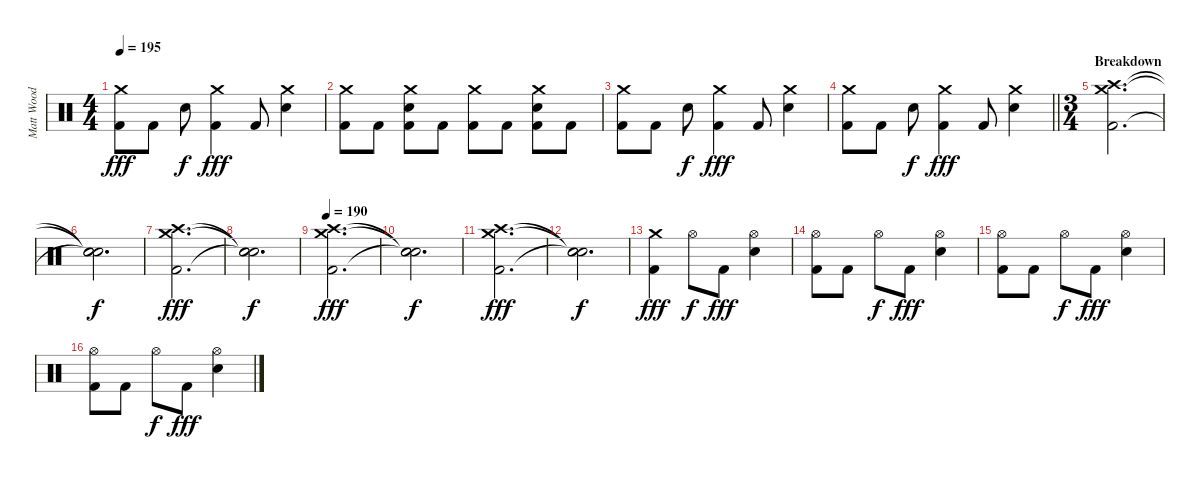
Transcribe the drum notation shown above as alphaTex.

\track ("Matt Wood" "Matt Wood") {instrument percussion}
\staff {score}
\articulation defaults
\ts (4 4)
\tempo 195
\clef neutral
\ks c
("Crash medium (hit)" "Kick (hit) 2").8{dy fff} "Kick (hit) 2".8 "Snare (hit) 2".8{dy f} ("Crash medium (hit)" "Kick (hit) 2").4{dy fff} "Kick (hit) 2".8 ("Crash medium (hit)" "Snare (hit) 2").4 |
("Crash medium (hit)" "Kick (hit) 2").8 "Kick (hit) 2".8 ("Crash medium (hit)" "Snare (hit) 2" "Kick (hit) 2").8 "Kick (hit) 2".8 ("Crash medium (hit)" "Kick (hit) 2").8 "Kick (hit) 2".8 ("Crash medium (hit)" "Snare (hit) 2" "Kick (hit) 2").8 "Kick (hit) 2".8 |
("Crash medium (hit)" "Kick (hit) 2").8 "Kick (hit) 2".8 "Snare (hit) 2".8{dy f} ("Crash medium (hit)" "Kick (hit) 2").4{dy fff} "Kick (hit) 2".8 ("Crash medium (hit)" "Snare (hit) 2").4 |
\barLineRight lightlight
("Crash medium (hit)" "Kick (hit) 2").8 "Kick (hit) 2".8 "Snare (hit) 2".8{dy f} ("Crash medium (hit)" "Kick (hit) 2").4{dy fff} "Kick (hit) 2".8 ("Crash medium (hit)" "Snare (hit) 2").4 |
\ts (3 4)
\section ("" "Breakdown")
("Crash medium (hit)" "Crash high (hit)" "Kick (hit) 2").2{d} |
("Snare (hit)"{t} "Snare (hit)"{t} "Snare (hit)"{t}).2{d dy f} |
("Crash medium (hit)" "Crash high (hit)" "Kick (hit) 2").2{d dy fff} |
("Snare (hit)"{t} "Snare (hit)"{t} "Snare (hit)"{t}).2{d dy f} |
\tempo 190
("Crash medium (hit)" "Crash high (hit)" "Kick (hit) 2").2{d dy fff} |
("Snare (hit)"{t} "Snare (hit)"{t} "Snare (hit)"{t}).2{d dy f} |
("Crash medium (hit)" "Crash high (hit)" "Kick (hit) 2").2{d dy fff} |
("Snare (hit)"{t} "Snare (hit)"{t} "Snare (hit)"{t}).2{d dy f} |
("Crash medium (hit)" "Kick (hit) 2").4{dy fff} "Hi-Hat (open)".8{dy f} "Kick (hit) 2".8{dy fff} ("Hi-Hat (open)" "Snare (hit) 2").4 |
("Hi-Hat (open)" "Kick (hit) 2").8 "Kick (hit) 2".8 "Hi-Hat (open)".8{dy f} "Kick (hit) 2".8{dy fff} ("Hi-Hat (open)" "Snare (hit) 2").4 |
("Hi-Hat (open)" "Kick (hit) 2").8 "Kick (hit) 2".8 "Hi-Hat (open)".8{dy f} "Kick (hit) 2".8{dy fff} ("Hi-Hat (open)" "Snare (hit) 2").4 |
("Hi-Hat (open)" "Kick (hit) 2").8 "Kick (hit) 2".8 "Hi-Hat (open)".8{dy f} "Kick (hit) 2".8{dy fff} ("Hi-Hat (open)" "Snare (hit) 2").4
